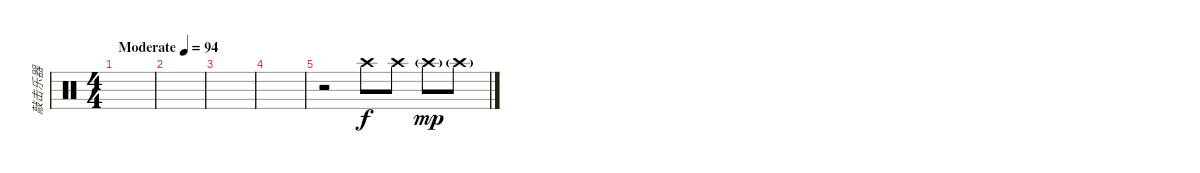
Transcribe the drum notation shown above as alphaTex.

\track ("敲击乐器" "敲击乐器") {instrument percussion}
\staff {score}
\articulation defaults
\ts (4 4)
\tempo (94 "Moderate")
\clef neutral
\ks c
|
|
|
|
r.2 "Crash high (hit)".8 "Crash high (hit)".8 "Crash high (hit)"{g}.8{dy mp} "Crash high (hit)"{g}.8
